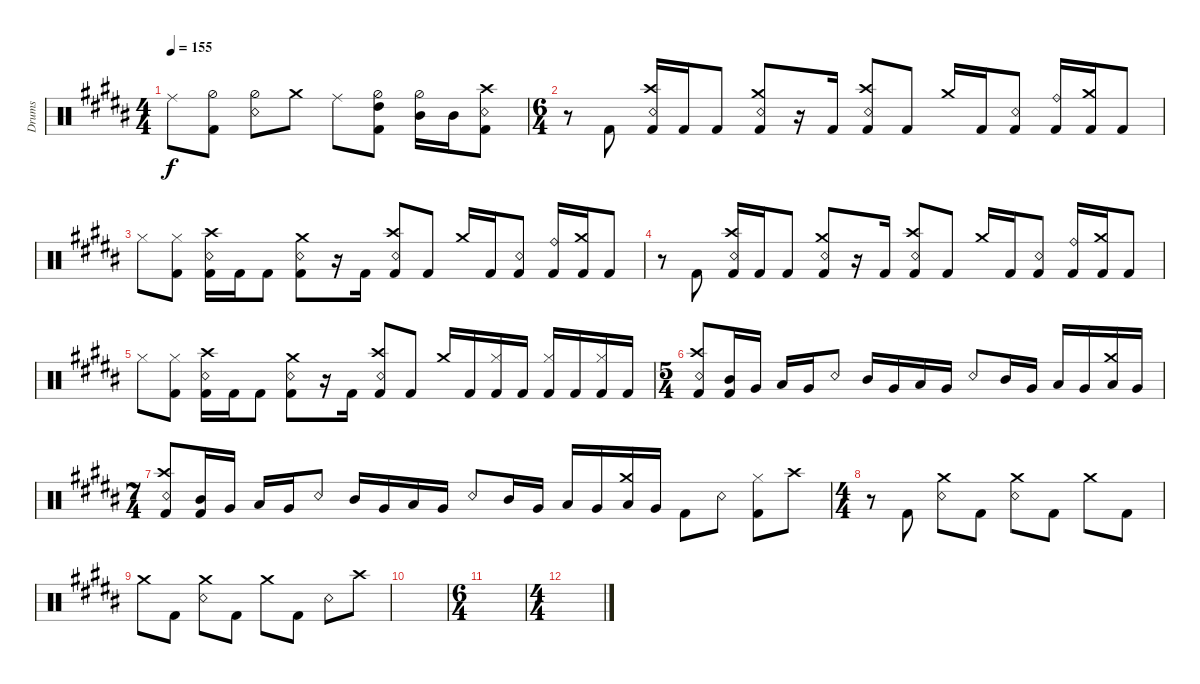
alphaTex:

\bracketExtendMode groupsimilarinstruments
\otherSystemsTrackNameOrientation horizontal
\track ("Drumkit" "Drums") {instrument percussion}
\staff {score}
\articulation defaults
\ts (4 4)
\tempo 155
\clef neutral
\ks b "Ride (middle)"{acc bb}.8{dy f beam Down}
("Kick (hit) 2"{acc bb} "Hi-Hat (half)"{acc bb}).8{beam Down} ("Snare (rim shot)"{acc bb} "Hi-Hat (half)"{acc bb}).8{beam Down} "Crash medium (hit)"{acc bb}.8{beam Down} "Ride (middle)"{acc bb}.8{beam Down} ("Kick (hit) 2"{acc bb} "Hi-Hat (half)"{acc bb} "High Tom (hit)"{acc bb}).8{beam Down} ("Hi-Hat (half)"{acc bb} "Mid Tom (hit)"{acc bb}).16{beam Down} "Mid Tom (hit)"{acc bb}.16{beam Down} ("Snare (rim shot)"{acc bb} "Kick (hit) 2"{acc bb} "Crash high (hit)"{acc bb}).8{beam Down} |
\ts (6 4)
r.8{beam Down} "Kick (hit) 2"{acc bb}.8{beam Up} ("Kick (hit) 2"{acc bb} "Crash high (hit)"{acc bb} "Snare (rim shot)"{acc bb}).16{beam Up} "Kick (hit) 2"{acc bb}.16{beam Up} "Kick (hit) 2"{acc bb}.8{beam Up} ("Kick (hit) 2"{acc bb} "Crash medium (hit)"{acc bb} "Snare (rim shot)"{acc bb}).8{beam Up} r.16{beam Up} "Kick (hit) 2"{acc bb}.16{beam Up} ("Kick (hit) 2"{acc bb} "Crash high (hit)"{acc bb} "Snare (rim shot)"{acc bb}).8{beam Up} "Kick (hit) 2"{acc bb}.8{beam Up} "Crash medium (hit)"{acc bb}.16{beam Up} "Kick (hit) 2"{acc bb}.16{beam Up} ("Kick (hit) 2"{acc bb} "Snare (rim shot)"{acc bb}).8{beam Up} ("Kick (hit) 2"{acc bb} "Ride (bell)"{acc bb}).16{beam Up} ("Kick (hit) 2"{acc bb} "Crash medium (hit)"{acc bb}).16{beam Up} "Kick (hit) 2"{acc bb}.8{beam Up} |
"Hi-Hat (closed)"{acc bb}.8{beam Down} ("Kick (hit) 2"{acc bb} "Hi-Hat (closed)"{acc bb}).8{beam Down} ("Kick (hit) 2"{acc bb} "Crash high (hit)"{acc bb} "Snare (rim shot)"{acc bb}).16{beam Down} "Kick (hit) 2"{acc bb}.16{beam Down} "Kick (hit) 2"{acc bb}.8{beam Down} ("Kick (hit) 2"{acc bb} "Crash medium (hit)"{acc bb} "Snare (rim shot)"{acc bb}).8{beam Down} r.16{beam Down} "Kick (hit) 2"{acc bb}.16{beam Down} ("Kick (hit) 2"{acc bb} "Crash high (hit)"{acc bb} "Snare (rim shot)"{acc bb}).8{beam Up} "Kick (hit) 2"{acc bb}.8{beam Up} "Crash medium (hit)"{acc bb}.16{beam Up} "Kick (hit) 2"{acc bb}.16{beam Up} ("Kick (hit) 2"{acc bb} "Snare (rim shot)"{acc bb}).8{beam Up} ("Kick (hit) 2"{acc bb} "Ride (bell)"{acc bb}).16{beam Up} ("Kick (hit) 2"{acc bb} "Crash medium (hit)"{acc bb}).16{beam Up} "Kick (hit) 2"{acc bb}.8{beam Up} |
r.8{beam Down} "Kick (hit) 2"{acc bb}.8{beam Up} ("Kick (hit) 2"{acc bb} "Crash high (hit)"{acc bb} "Snare (rim shot)"{acc bb}).16{beam Up} "Kick (hit) 2"{acc bb}.16{beam Up} "Kick (hit) 2"{acc bb}.8{beam Up} ("Kick (hit) 2"{acc bb} "Crash medium (hit)"{acc bb} "Snare (rim shot)"{acc bb}).8{beam Up} r.16{beam Up} "Kick (hit) 2"{acc bb}.16{beam Up} ("Kick (hit) 2"{acc bb} "Crash high (hit)"{acc bb} "Snare (rim shot)"{acc bb}).8{beam Up} "Kick (hit) 2"{acc bb}.8{beam Up} "Crash medium (hit)"{acc bb}.16{beam Up} "Kick (hit) 2"{acc bb}.16{beam Up} ("Kick (hit) 2"{acc bb} "Snare (rim shot)"{acc bb}).8{beam Up} ("Kick (hit) 2"{acc bb} "Ride (bell)"{acc bb}).16{beam Up} ("Kick (hit) 2"{acc bb} "Crash medium (hit)"{acc bb}).16{beam Up} "Kick (hit) 2"{acc bb}.8{beam Up} |
"Hi-Hat (closed)"{acc bb}.8{beam Down} ("Kick (hit) 2"{acc bb} "Hi-Hat (closed)"{acc bb}).8{beam Down} ("Kick (hit) 2"{acc bb} "Crash high (hit)"{acc bb} "Snare (rim shot)"{acc bb}).16{beam Down} "Kick (hit) 2"{acc bb}.16{beam Down} "Kick (hit) 2"{acc bb}.8{beam Down} ("Kick (hit) 2"{acc bb} "Crash medium (hit)"{acc bb} "Snare (rim shot)"{acc bb}).8{beam Down} r.16{beam Down} "Kick (hit) 2"{acc bb}.16{beam Down} ("Kick (hit) 2"{acc bb} "Crash high (hit)"{acc bb} "Snare (rim shot)"{acc bb}).8{beam Up} "Kick (hit) 2"{acc bb}.8{beam Up} "Crash medium (hit)"{acc bb}.16{beam Up} "Kick (hit) 2"{acc bb}.16{beam Up} ("Kick (hit) 2"{acc bb} "Hi-Hat (closed)"{acc bb}).16{beam Up} "Kick (hit) 2"{acc bb}.16{beam Up} ("Kick (hit) 2"{acc bb} "Hi-Hat (closed)"{acc bb}).16{beam Up} "Kick (hit) 2"{acc bb}.16{beam Up} ("Kick (hit) 2"{acc bb} "Hi-Hat (closed)"{acc bb}).16{beam Up} "Kick (hit) 2"{acc bb}.16{beam Up} |
\ts (5 4)
("Snare (rim shot)"{acc bb} "Crash high (hit)"{acc bb} "Kick (hit) 2"{acc bb}).8{beam Up} ("Mid Tom (hit)"{acc bb} "Kick (hit) 2"{acc bb}).16{beam Up} "Very Low Tom (hit)"{acc bb}.16{beam Up} "Low Tom (hit)"{acc bb}.16{beam Up} "Very Low Tom (hit)"{acc bb}.16{beam Up} "Snare (rim shot)"{acc bb}.8{beam Up} "Mid Tom (hit)"{acc bb}.16{beam Up} "Very Low Tom (hit)"{acc bb}.16{beam Up} "Low Tom (hit)"{acc bb}.16{beam Up} "Very Low Tom (hit)"{acc bb}.16{beam Up} "Snare (rim shot)"{acc bb}.8{beam Up} "Mid Tom (hit)"{acc bb}.16{beam Up} "Very Low Tom (hit)"{acc bb}.16{beam Up} "Low Tom (hit)"{acc bb}.16{beam Up} "Very Low Tom (hit)"{acc bb}.16{beam Up} ("Low Tom (hit)"{acc bb} "Crash medium (hit)"{acc bb}).16{beam Up} "Very Low Tom (hit)"{acc bb}.16{beam Up} |
\ts (7 4)
("Snare (rim shot)"{acc bb} "Crash high (hit)"{acc bb} "Kick (hit) 2"{acc bb}).8{beam Up} ("Mid Tom (hit)"{acc bb} "Kick (hit) 2"{acc bb}).16{beam Up} "Very Low Tom (hit)"{acc bb}.16{beam Up} "Low Tom (hit)"{acc bb}.16{beam Up} "Very Low Tom (hit)"{acc bb}.16{beam Up} "Snare (rim shot)"{acc bb}.8{beam Up} "Mid Tom (hit)"{acc bb}.16{beam Up} "Very Low Tom (hit)"{acc bb}.16{beam Up} "Low Tom (hit)"{acc bb}.16{beam Up} "Very Low Tom (hit)"{acc bb}.16{beam Up} "Snare (rim shot)"{acc bb}.8{beam Up} "Mid Tom (hit)"{acc bb}.16{beam Up} "Very Low Tom (hit)"{acc bb}.16{beam Up} "Low Tom (hit)"{acc bb}.16{beam Up} "Very Low Tom (hit)"{acc bb}.16{beam Up} ("Low Tom (hit)"{acc bb} "Crash medium (hit)"{acc bb}).16{beam Up} "Very Low Tom (hit)"{acc bb}.16{beam Up} "Kick (hit) 2"{acc bb}.8{beam Down} "Snare (rim shot)"{acc bb}.8{beam Down} ("Kick (hit) 2"{acc bb} "Hi-Hat (closed)"{acc bb}).8{beam Down} "Crash high (hit)"{acc bb}.8{beam Down} |
\ts (4 4)
r.8{beam Down} "Kick (hit) 2"{acc bb}.8{beam Up} ("Snare (rim shot)"{acc bb} "Crash medium (hit)"{acc bb}).8{beam Down} "Kick (hit) 2"{acc bb}.8{beam Down} ("Snare (rim shot)"{acc bb} "Crash medium (hit)"{acc bb}).8{beam Down} "Kick (hit) 2"{acc bb}.8{beam Down} "Crash medium (hit)"{acc bb}.8{beam Down} "Kick (hit) 2"{acc bb}.8{beam Down} |
"Crash medium (hit)"{acc bb}.8{beam Down} "Kick (hit) 2"{acc bb}.8{beam Down} ("Snare (rim shot)"{acc bb} "Crash medium (hit)"{acc bb}).8{beam Down} "Kick (hit) 2"{acc bb}.8{beam Down} "Crash medium (hit)"{acc bb}.8{beam Down} "Kick (hit) 2"{acc bb}.8{beam Down} "Snare (rim shot)"{acc bb}.8{beam Down} "Crash high (hit)"{acc bb}.8{beam Down} |
|
\ts (6 4)
|
\ts (4 4)
